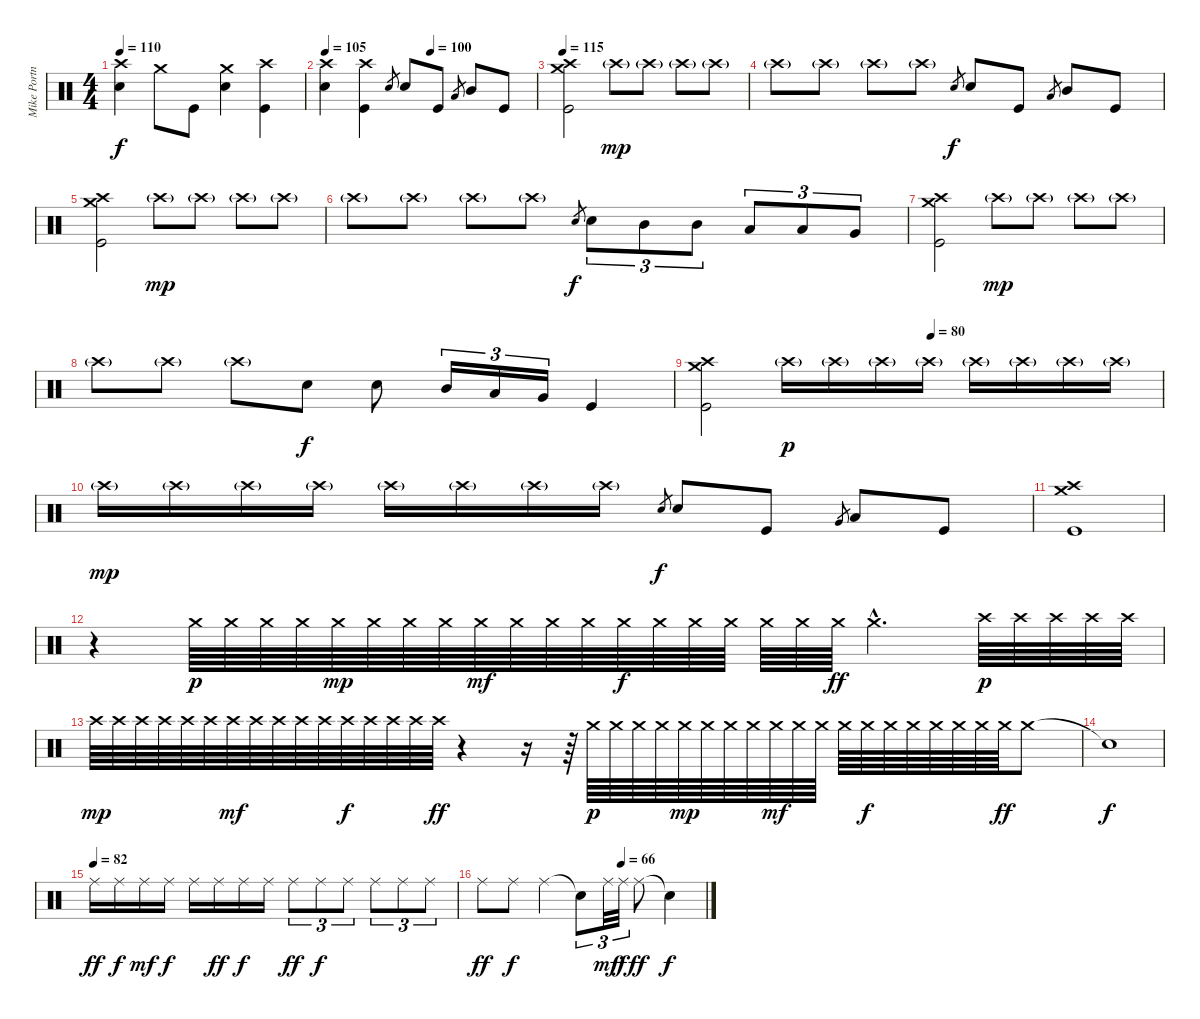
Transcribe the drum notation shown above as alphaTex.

\track ("Mike Portnoy" "Mike Portn") {instrument percussion}
\staff {score}
\articulation defaults
\ts (4 4)
\tempo 110
\clef neutral
\ks c
("Crash high (hit)" "Electric Snare (hit)").4{dy f} "Crash medium (hit)".8 "Kick (hit)".8 ("Crash medium (hit)" "Electric Snare (hit)").4 ("Crash high (hit)" "Kick (hit)").4 |
\tempo 105
\tempo (100 0.5)
("Crash high (hit)" "Electric Snare (hit)").4 ("Crash high (hit)" "Kick (hit)").4 "Electric Snare (hit)".8{gr} "Electric Snare (hit)".8 "Kick (hit)".8 "Low Tom (hit)".8{gr} "Mid Tom (hit)".8 "Kick (hit)".8 |
\tempo 115
("Crash high (hit)" "Crash medium (hit)" "Kick (hit)").2 "Crash high (hit)"{g}.8{dy mp} "Crash high (hit)"{g}.8 "Crash high (hit)"{g}.8 "Crash high (hit)"{g}.8 |
"Crash high (hit)"{g}.8 "Crash high (hit)"{g}.8 "Crash high (hit)"{g}.8 "Crash high (hit)"{g}.8 "Electric Snare (hit)".8{gr dy f} "Electric Snare (hit)".8 "Kick (hit)".8 "Low Tom (hit)".8{gr} "Mid Tom (hit)".8 "Kick (hit)".8 |
("Crash high (hit)" "Crash medium (hit)" "Kick (hit)").2 "Crash high (hit)"{g}.8{dy mp} "Crash high (hit)"{g}.8 "Crash high (hit)"{g}.8 "Crash high (hit)"{g}.8 |
"Crash high (hit)"{g}.8 "Crash high (hit)"{g}.8 "Crash high (hit)"{g}.8 "Crash high (hit)"{g}.8 "Electric Snare (hit)".8{gr dy f} "Electric Snare (hit)".8{tu (3 2)} "Mid Tom (hit)".8{tu (3 2)} "Mid Tom (hit)".8{tu (3 2)} "Low Tom (hit)".8{tu (3 2)} "Low Tom (hit)".8{tu (3 2)} "Very Low Tom (hit)".8{tu (3 2)} |
("Crash high (hit)" "Crash medium (hit)" "Kick (hit)").2 "Crash high (hit)"{g}.8{dy mp} "Crash high (hit)"{g}.8 "Crash high (hit)"{g}.8 "Crash high (hit)"{g}.8 |
"Crash high (hit)"{g}.8 "Crash high (hit)"{g}.8 "Crash high (hit)"{g}.8 "Electric Snare (hit)".8{dy f} "Electric Snare (hit)".8 "Mid Tom (hit)".16{tu (3 2)} "Low Tom (hit)".16{tu (3 2)} "Very Low Tom (hit)".16{tu (3 2)} "Kick (hit)".4 |
\tempo (80 0.5)
("Crash high (hit)" "Crash medium (hit)" "Kick (hit)").2 "Crash high (hit)"{g}.16{dy p} "Crash high (hit)"{g}.16 "Crash high (hit)"{g}.16 "Crash high (hit)"{g}.16 "Crash high (hit)"{g}.16 "Crash high (hit)"{g}.16 "Crash high (hit)"{g}.16 "Crash high (hit)"{g}.16 |
"Crash high (hit)"{g}.16{dy mp} "Crash high (hit)"{g}.16 "Crash high (hit)"{g}.16 "Crash high (hit)"{g}.16 "Crash high (hit)"{g}.16 "Crash high (hit)"{g}.16 "Crash high (hit)"{g}.16 "Crash high (hit)"{g}.16 "Electric Snare (hit)".8{gr dy f} "Electric Snare (hit)".8 "Kick (hit)".8 "Very Low Tom (hit)".8{gr} "Low Tom (hit)".8 "Kick (hit)".8 |
("Crash high (hit)" "Crash medium (hit)" "Kick (hit)").1 |
r.4 "Crash medium (hit)".64{dy p} "Crash medium (hit)".64 "Crash medium (hit)".64 "Crash medium (hit)".64 "Crash medium (hit)".64{dy mp} "Crash medium (hit)".64 "Crash medium (hit)".64 "Crash medium (hit)".64 "Crash medium (hit)".64{dy mf} "Crash medium (hit)".64 "Crash medium (hit)".64 "Crash medium (hit)".64 "Crash medium (hit)".64{dy f} "Crash medium (hit)".64 "Crash medium (hit)".64 "Crash medium (hit)".64 "Crash medium (hit)".64 "Crash medium (hit)".64 "Crash medium (hit)".64{dy ff} "Crash medium (hit)"{hac}.4{d} "Crash high (hit)".64{dy p} "Crash high (hit)".64 "Crash high (hit)".64 "Crash high (hit)".64 "Crash high (hit)".64 |
"Crash high (hit)".64{dy mp} "Crash high (hit)".64 "Crash high (hit)".64 "Crash high (hit)".64 "Crash high (hit)".64 "Crash high (hit)".64 "Crash high (hit)".64{dy mf} "Crash high (hit)".64 "Crash high (hit)".64 "Crash high (hit)".64 "Crash high (hit)".64 "Crash high (hit)".64{dy f} "Crash high (hit)".64 "Crash high (hit)".64 "Crash high (hit)".64 "Crash high (hit)".64{dy ff} r.4 r.16 r.64 "Crash medium (hit)".64{dy p} "Crash medium (hit)".64 "Crash medium (hit)".64 "Crash medium (hit)".64 "Crash medium (hit)".64{dy mp} "Crash medium (hit)".64 "Crash medium (hit)".64 "Crash medium (hit)".64 "Crash medium (hit)".64{dy mf} "Crash medium (hit)".64 "Crash medium (hit)".64 "Crash medium (hit)".64 "Crash medium (hit)".64{dy f} "Crash medium (hit)".64 "Crash medium (hit)".64 "Crash medium (hit)".64 "Crash medium (hit)".64 "Crash medium (hit)".64 "Crash medium (hit)".64{dy ff} "Crash medium (hit)".8 |
"Snare (hit)"{t}.1{dy f} |
\tempo (82)
"Ride (middle)".16{dy ff volume 11} "Ride (middle)".16{dy f} "Ride (middle)".16{dy mf} "Ride (middle)".16{dy f} "Ride (middle)".16 "Ride (middle)".16{dy ff} "Ride (middle)".16{dy f} "Ride (middle)".16 "Ride (middle)".8{tu (3 2) dy ff} "Ride (middle)".8{tu (3 2) dy f} "Ride (middle)".8{tu (3 2)} "Ride (middle)".8{tu (3 2)} "Ride (middle)".8{tu (3 2)} "Ride (middle)".8{tu (3 2)} |
\tempo (66 0.625)
"Ride (middle)".8{dy ff volume 9} "Ride (middle)".8{dy f} "Ride (middle)".4 "Snare (hit)"{t}.8{tu (3 2)} "Ride (middle)".32{tu (3 2) dy mf} "Ride (middle)".32{tu (3 2) dy f} "Ride (middle)".8{dy ff} "Snare (hit)"{t}.4{dy f}
